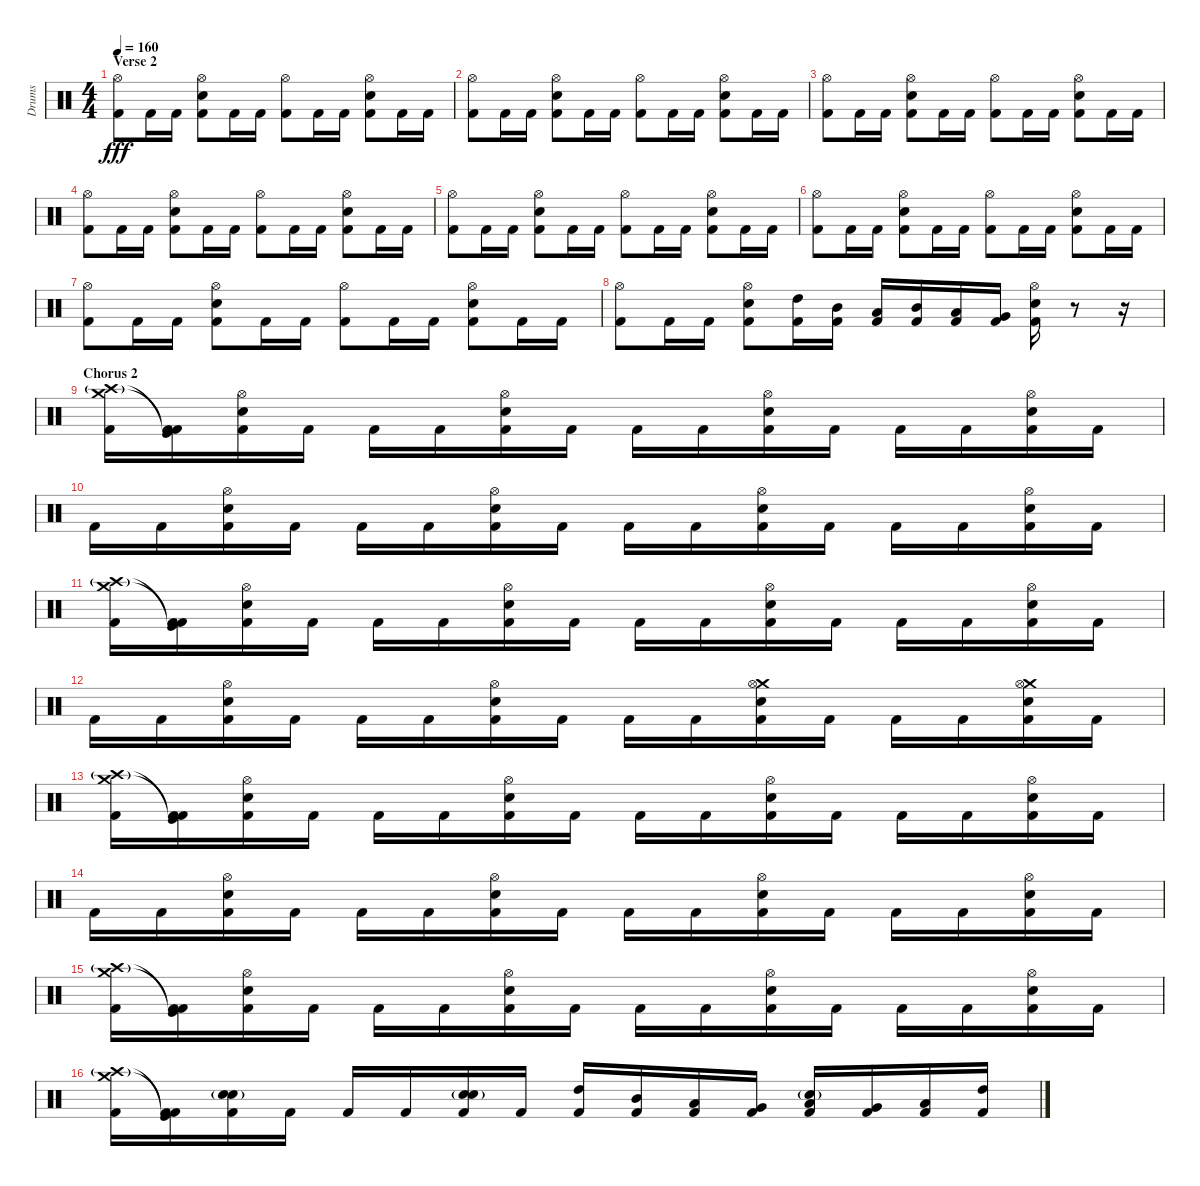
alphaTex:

\track ("Drums" "Drums") {instrument percussion}
\staff {score}
\articulation defaults
\ts (4 4)
\section ("" "Verse 2")
\tempo 160
\clef neutral
\ks c
("Hi-Hat (open)" "Kick (hit) 2").8{dy fff} "Kick (hit) 2".16 "Kick (hit) 2".16 ("Hi-Hat (open)" "Snare (hit) 2" "Kick (hit) 2").8 "Kick (hit) 2".16 "Kick (hit) 2".16 ("Hi-Hat (open)" "Kick (hit) 2").8 "Kick (hit) 2".16 "Kick (hit) 2".16 ("Hi-Hat (open)" "Snare (hit) 2" "Kick (hit) 2").8 "Kick (hit) 2".16 "Kick (hit) 2".16 |
("Hi-Hat (open)" "Kick (hit) 2").8 "Kick (hit) 2".16 "Kick (hit) 2".16 ("Hi-Hat (open)" "Snare (hit) 2" "Kick (hit) 2").8 "Kick (hit) 2".16 "Kick (hit) 2".16 ("Hi-Hat (open)" "Kick (hit) 2").8 "Kick (hit) 2".16 "Kick (hit) 2".16 ("Hi-Hat (open)" "Snare (hit) 2" "Kick (hit) 2").8 "Kick (hit) 2".16 "Kick (hit) 2".16 |
("Hi-Hat (open)" "Kick (hit) 2").8 "Kick (hit) 2".16 "Kick (hit) 2".16 ("Hi-Hat (open)" "Snare (hit) 2" "Kick (hit) 2").8 "Kick (hit) 2".16 "Kick (hit) 2".16 ("Hi-Hat (open)" "Kick (hit) 2").8 "Kick (hit) 2".16 "Kick (hit) 2".16 ("Hi-Hat (open)" "Snare (hit) 2" "Kick (hit) 2").8 "Kick (hit) 2".16 "Kick (hit) 2".16 |
("Hi-Hat (open)" "Kick (hit) 2").8 "Kick (hit) 2".16 "Kick (hit) 2".16 ("Hi-Hat (open)" "Snare (hit) 2" "Kick (hit) 2").8 "Kick (hit) 2".16 "Kick (hit) 2".16 ("Hi-Hat (open)" "Kick (hit) 2").8 "Kick (hit) 2".16 "Kick (hit) 2".16 ("Hi-Hat (open)" "Snare (hit) 2" "Kick (hit) 2").8 "Kick (hit) 2".16 "Kick (hit) 2".16 |
("Hi-Hat (open)" "Kick (hit) 2").8 "Kick (hit) 2".16 "Kick (hit) 2".16 ("Hi-Hat (open)" "Snare (hit) 2" "Kick (hit) 2").8 "Kick (hit) 2".16 "Kick (hit) 2".16 ("Hi-Hat (open)" "Kick (hit) 2").8 "Kick (hit) 2".16 "Kick (hit) 2".16 ("Hi-Hat (open)" "Snare (hit) 2" "Kick (hit) 2").8 "Kick (hit) 2".16 "Kick (hit) 2".16 |
("Hi-Hat (open)" "Kick (hit) 2").8 "Kick (hit) 2".16 "Kick (hit) 2".16 ("Hi-Hat (open)" "Snare (hit) 2" "Kick (hit) 2").8 "Kick (hit) 2".16 "Kick (hit) 2".16 ("Hi-Hat (open)" "Kick (hit) 2").8 "Kick (hit) 2".16 "Kick (hit) 2".16 ("Hi-Hat (open)" "Snare (hit) 2" "Kick (hit) 2").8 "Kick (hit) 2".16 "Kick (hit) 2".16 |
("Hi-Hat (open)" "Kick (hit) 2").8 "Kick (hit) 2".16 "Kick (hit) 2".16 ("Hi-Hat (open)" "Snare (hit) 2" "Kick (hit) 2").8 "Kick (hit) 2".16 "Kick (hit) 2".16 ("Hi-Hat (open)" "Kick (hit) 2").8 "Kick (hit) 2".16 "Kick (hit) 2".16 ("Hi-Hat (open)" "Snare (hit) 2" "Kick (hit) 2").8 "Kick (hit) 2".16 "Kick (hit) 2".16 |
("Hi-Hat (open)" "Kick (hit) 2").8 "Kick (hit) 2".16 "Kick (hit) 2".16 ("Hi-Hat (open)" "Snare (hit) 2" "Kick (hit) 2").8 ("High Tom (hit)" "Kick (hit) 2").16 ("Mid Tom (hit)" "Kick (hit) 2").16 ("Low Tom (hit)" "Kick (hit) 2").16 ("Mid Tom (hit)" "Kick (hit) 2").16 ("Low Tom (hit)" "Kick (hit) 2").16 ("Very Low Tom (hit)" "Kick (hit) 2").16 ("Hi-Hat (open)" "Snare (hit) 2" "Kick (hit) 2").16 r.8 r.16 |
\section ("" "Chorus 2")
("Crash medium (hit)" "Crash high (hit)"{g} "Kick (hit) 2").16 ("Kick (hit) 2"{t} "Kick (hit)"{t} "Kick (hit) 2").16 ("Hi-Hat (open)" "Snare (hit) 2" "Kick (hit) 2").16 "Kick (hit) 2".16 "Kick (hit) 2".16 "Kick (hit) 2".16 ("Hi-Hat (open)" "Snare (hit) 2" "Kick (hit) 2").16 "Kick (hit) 2".16 "Kick (hit) 2".16 "Kick (hit) 2".16 ("Hi-Hat (open)" "Snare (hit) 2" "Kick (hit) 2").16 "Kick (hit) 2".16 "Kick (hit) 2".16 "Kick (hit) 2".16 ("Hi-Hat (open)" "Snare (hit) 2" "Kick (hit) 2").16 "Kick (hit) 2".16 |
"Kick (hit) 2".16 "Kick (hit) 2".16 ("Hi-Hat (open)" "Snare (hit) 2" "Kick (hit) 2").16 "Kick (hit) 2".16 "Kick (hit) 2".16 "Kick (hit) 2".16 ("Hi-Hat (open)" "Snare (hit) 2" "Kick (hit) 2").16 "Kick (hit) 2".16 "Kick (hit) 2".16 "Kick (hit) 2".16 ("Hi-Hat (open)" "Snare (hit) 2" "Kick (hit) 2").16 "Kick (hit) 2".16 "Kick (hit) 2".16 "Kick (hit) 2".16 ("Hi-Hat (open)" "Snare (hit) 2" "Kick (hit) 2").16 "Kick (hit) 2".16 |
("Crash medium (hit)" "Crash high (hit)"{g} "Kick (hit) 2").16 ("Kick (hit) 2"{t} "Kick (hit)"{t} "Kick (hit) 2").16 ("Hi-Hat (open)" "Snare (hit) 2" "Kick (hit) 2").16 "Kick (hit) 2".16 "Kick (hit) 2".16 "Kick (hit) 2".16 ("Hi-Hat (open)" "Snare (hit) 2" "Kick (hit) 2").16 "Kick (hit) 2".16 "Kick (hit) 2".16 "Kick (hit) 2".16 ("Hi-Hat (open)" "Snare (hit) 2" "Kick (hit) 2").16 "Kick (hit) 2".16 "Kick (hit) 2".16 "Kick (hit) 2".16 ("Hi-Hat (open)" "Snare (hit) 2" "Kick (hit) 2").16 "Kick (hit) 2".16 |
"Kick (hit) 2".16 "Kick (hit) 2".16 ("Hi-Hat (open)" "Snare (hit) 2" "Kick (hit) 2").16 "Kick (hit) 2".16 "Kick (hit) 2".16 "Kick (hit) 2".16 ("Hi-Hat (open)" "Snare (hit) 2" "Kick (hit) 2").16 "Kick (hit) 2".16 "Kick (hit) 2".16 "Kick (hit) 2".16 ("Crash medium (hit)" "Hi-Hat (open)" "Snare (hit) 2" "Kick (hit) 2").16 "Kick (hit) 2".16 "Kick (hit) 2".16 "Kick (hit) 2".16 ("Crash medium (hit)" "Hi-Hat (open)" "Snare (hit) 2" "Kick (hit) 2").16 "Kick (hit) 2".16 |
("Crash medium (hit)" "Crash high (hit)"{g} "Kick (hit) 2").16 ("Kick (hit) 2"{t} "Kick (hit)"{t} "Kick (hit) 2").16 ("Hi-Hat (open)" "Snare (hit) 2" "Kick (hit) 2").16 "Kick (hit) 2".16 "Kick (hit) 2".16 "Kick (hit) 2".16 ("Hi-Hat (open)" "Snare (hit) 2" "Kick (hit) 2").16 "Kick (hit) 2".16 "Kick (hit) 2".16 "Kick (hit) 2".16 ("Hi-Hat (open)" "Snare (hit) 2" "Kick (hit) 2").16 "Kick (hit) 2".16 "Kick (hit) 2".16 "Kick (hit) 2".16 ("Hi-Hat (open)" "Snare (hit) 2" "Kick (hit) 2").16 "Kick (hit) 2".16 |
"Kick (hit) 2".16 "Kick (hit) 2".16 ("Hi-Hat (open)" "Snare (hit) 2" "Kick (hit) 2").16 "Kick (hit) 2".16 "Kick (hit) 2".16 "Kick (hit) 2".16 ("Hi-Hat (open)" "Snare (hit) 2" "Kick (hit) 2").16 "Kick (hit) 2".16 "Kick (hit) 2".16 "Kick (hit) 2".16 ("Hi-Hat (open)" "Snare (hit) 2" "Kick (hit) 2").16 "Kick (hit) 2".16 "Kick (hit) 2".16 "Kick (hit) 2".16 ("Hi-Hat (open)" "Snare (hit) 2" "Kick (hit) 2").16 "Kick (hit) 2".16 |
("Crash medium (hit)" "Crash high (hit)"{g} "Kick (hit) 2").16 ("Kick (hit) 2"{t} "Kick (hit)"{t} "Kick (hit) 2").16 ("Hi-Hat (open)" "Snare (hit) 2" "Kick (hit) 2").16 "Kick (hit) 2".16 "Kick (hit) 2".16 "Kick (hit) 2".16 ("Hi-Hat (open)" "Snare (hit) 2" "Kick (hit) 2").16 "Kick (hit) 2".16 "Kick (hit) 2".16 "Kick (hit) 2".16 ("Hi-Hat (open)" "Snare (hit) 2" "Kick (hit) 2").16 "Kick (hit) 2".16 "Kick (hit) 2".16 "Kick (hit) 2".16 ("Hi-Hat (open)" "Snare (hit) 2" "Kick (hit) 2").16 "Kick (hit) 2".16 |
("Crash medium (hit)" "Crash high (hit)"{g} "Kick (hit) 2").16 ("Kick (hit) 2"{t} "Kick (hit)"{t} "Kick (hit) 2").16 ("Snare (hit) 2"{g} "Electric Snare (hit)" "Kick (hit) 2").16 "Kick (hit) 2".16 "Kick (hit) 2".16 "Kick (hit) 2".16 ("Snare (hit) 2"{g} "Electric Snare (hit)" "Kick (hit) 2").16 "Kick (hit) 2".16 ("High Tom (hit)" "Kick (hit) 2").16 ("Mid Tom (hit)" "Kick (hit) 2").16 ("Low Tom (hit)" "Kick (hit) 2").16 ("Very Low Tom (hit)" "Kick (hit) 2").16 ("Snare (hit)"{g} "Low Tom (hit)" "Kick (hit) 2").16 ("Very Low Tom (hit)" "Kick (hit) 2").16 ("Low Floor Tom (hit)" "Kick (hit) 2").16 ("High Tom (hit)" "Kick (hit) 2").16
